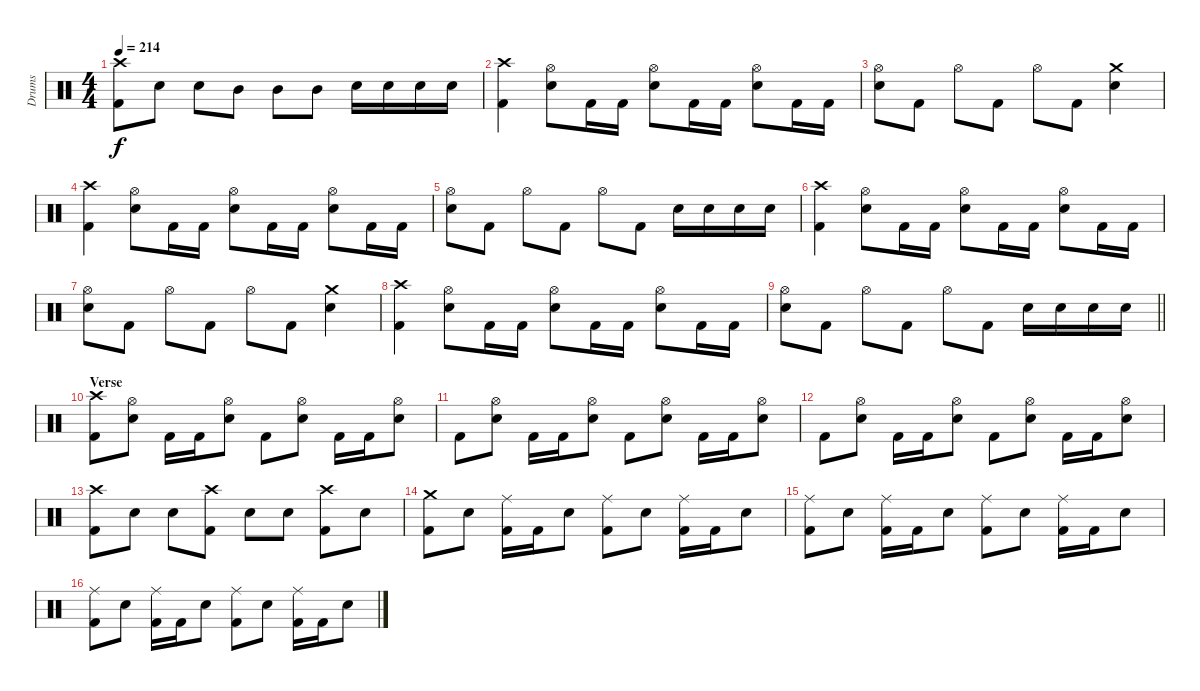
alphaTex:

\track ("Drums" "Drums") {instrument percussion}
\staff {score}
\articulation defaults
\ts (4 4)
\tempo 214
\clef neutral
\ks c
("Crash high (hit)" "Kick (hit) 2").8{dy f} "Snare (hit) 2".8 "Snare (hit) 2".8 "Mid Tom (hit)".8 "Mid Tom (hit)".8 "Mid Tom (hit)".8 "Snare (hit) 2".16 "Snare (hit) 2".16 "Snare (hit) 2".16 "Snare (hit) 2".16 |
("Crash high (hit)" "Kick (hit) 2").4 ("Hi-Hat (open)" "Snare (hit) 2").8 "Kick (hit) 2".16 "Kick (hit) 2".16 ("Hi-Hat (open)" "Snare (hit) 2").8 "Kick (hit) 2".16 "Kick (hit) 2".16 ("Hi-Hat (open)" "Snare (hit) 2").8 "Kick (hit) 2".16 "Kick (hit) 2".16 |
("Hi-Hat (open)" "Snare (hit) 2").8 "Kick (hit) 2".8 "Hi-Hat (open)".8 "Kick (hit) 2".8 "Hi-Hat (open)".8 "Kick (hit) 2".8 ("Crash medium (hit)" "Snare (hit) 2").4 |
("Crash high (hit)" "Kick (hit) 2").4 ("Hi-Hat (open)" "Snare (hit) 2").8 "Kick (hit) 2".16 "Kick (hit) 2".16 ("Hi-Hat (open)" "Snare (hit) 2").8 "Kick (hit) 2".16 "Kick (hit) 2".16 ("Hi-Hat (open)" "Snare (hit) 2").8 "Kick (hit) 2".16 "Kick (hit) 2".16 |
("Hi-Hat (open)" "Snare (hit) 2").8 "Kick (hit) 2".8 "Hi-Hat (open)".8 "Kick (hit) 2".8 "Hi-Hat (open)".8 "Kick (hit) 2".8 "Snare (hit) 2".16 "Snare (hit) 2".16 "Snare (hit) 2".16 "Snare (hit) 2".16 |
("Crash high (hit)" "Kick (hit) 2").4 ("Hi-Hat (open)" "Snare (hit) 2").8 "Kick (hit) 2".16 "Kick (hit) 2".16 ("Hi-Hat (open)" "Snare (hit) 2").8 "Kick (hit) 2".16 "Kick (hit) 2".16 ("Hi-Hat (open)" "Snare (hit) 2").8 "Kick (hit) 2".16 "Kick (hit) 2".16 |
("Hi-Hat (open)" "Snare (hit) 2").8 "Kick (hit) 2".8 "Hi-Hat (open)".8 "Kick (hit) 2".8 "Hi-Hat (open)".8 "Kick (hit) 2".8 ("Crash medium (hit)" "Snare (hit) 2").4 |
("Crash high (hit)" "Kick (hit) 2").4 ("Hi-Hat (open)" "Snare (hit) 2").8 "Kick (hit) 2".16 "Kick (hit) 2".16 ("Hi-Hat (open)" "Snare (hit) 2").8 "Kick (hit) 2".16 "Kick (hit) 2".16 ("Hi-Hat (open)" "Snare (hit) 2").8 "Kick (hit) 2".16 "Kick (hit) 2".16 |
\barLineRight lightlight
("Hi-Hat (open)" "Snare (hit) 2").8 "Kick (hit) 2".8 "Hi-Hat (open)".8 "Kick (hit) 2".8 "Hi-Hat (open)".8 "Kick (hit) 2".8 "Snare (hit) 2".16 "Snare (hit) 2".16 "Snare (hit) 2".16 "Snare (hit) 2".16 |
\section ("" "Verse")
("Crash high (hit)" "Kick (hit) 2").8 ("Hi-Hat (open)" "Snare (hit) 2").8 "Kick (hit) 2".16 "Kick (hit) 2".16 ("Hi-Hat (open)" "Snare (hit) 2").8 "Kick (hit) 2".8 ("Hi-Hat (open)" "Snare (hit) 2").8 "Kick (hit) 2".16 "Kick (hit) 2".16 ("Hi-Hat (open)" "Snare (hit) 2").8 |
"Kick (hit) 2".8 ("Hi-Hat (open)" "Snare (hit) 2").8 "Kick (hit) 2".16 "Kick (hit) 2".16 ("Hi-Hat (open)" "Snare (hit) 2").8 "Kick (hit) 2".8 ("Hi-Hat (open)" "Snare (hit) 2").8 "Kick (hit) 2".16 "Kick (hit) 2".16 ("Hi-Hat (open)" "Snare (hit) 2").8 |
"Kick (hit) 2".8 ("Hi-Hat (open)" "Snare (hit) 2").8 "Kick (hit) 2".16 "Kick (hit) 2".16 ("Hi-Hat (open)" "Snare (hit) 2").8 "Kick (hit) 2".8 ("Hi-Hat (open)" "Snare (hit) 2").8 "Kick (hit) 2".16 "Kick (hit) 2".16 ("Hi-Hat (open)" "Snare (hit) 2").8 |
("Crash high (hit)" "Kick (hit) 2").8 "Snare (hit) 2".8 "Snare (hit) 2".8 ("Crash high (hit)" "Kick (hit) 2").8 "Snare (hit) 2".8 "Snare (hit) 2".8 ("Crash high (hit)" "Kick (hit) 2").8 "Snare (hit) 2".8 |
("Crash medium (hit)" "Kick (hit) 2").8 "Snare (hit) 2".8 ("Ride (middle)" "Kick (hit) 2").16 "Kick (hit) 2".16 "Snare (hit) 2".8 ("Ride (middle)" "Kick (hit) 2").8 "Snare (hit) 2".8 ("Ride (middle)" "Kick (hit) 2").16 "Kick (hit) 2".16 "Snare (hit) 2".8 |
("Ride (middle)" "Kick (hit) 2").8 "Snare (hit) 2".8 ("Ride (middle)" "Kick (hit) 2").16 "Kick (hit) 2".16 "Snare (hit) 2".8 ("Ride (middle)" "Kick (hit) 2").8 "Snare (hit) 2".8 ("Ride (middle)" "Kick (hit) 2").16 "Kick (hit) 2".16 "Snare (hit) 2".8 |
("Ride (middle)" "Kick (hit) 2").8 "Snare (hit) 2".8 ("Ride (middle)" "Kick (hit) 2").16 "Kick (hit) 2".16 "Snare (hit) 2".8 ("Ride (middle)" "Kick (hit) 2").8 "Snare (hit) 2".8 ("Ride (middle)" "Kick (hit) 2").16 "Kick (hit) 2".16 "Snare (hit) 2".8
